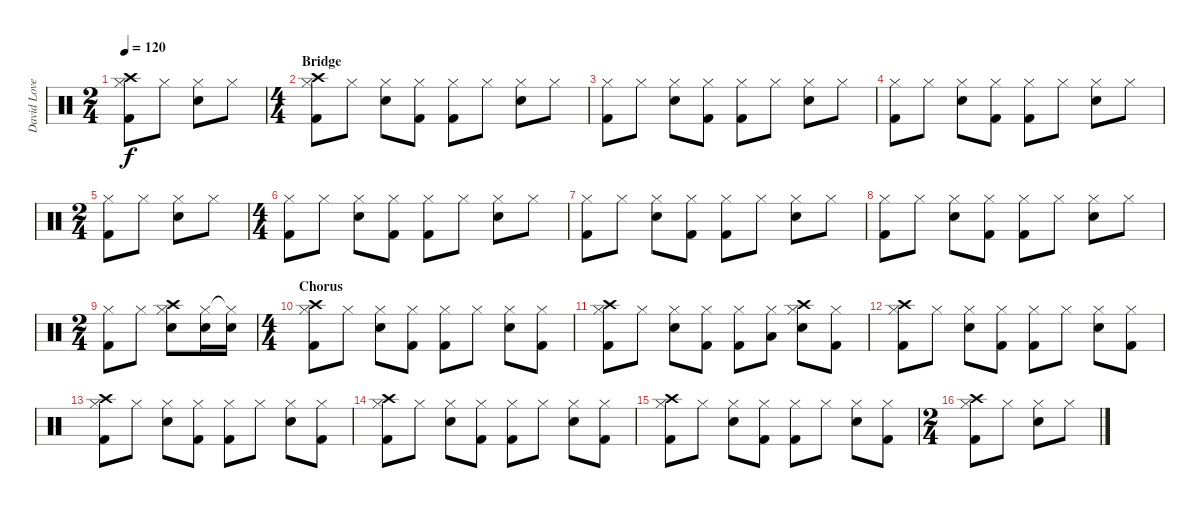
\track ("David Lovering" "David Love") {instrument percussion}
\staff {score}
\articulation defaults
\ts (2 4)
\tempo 120
\clef neutral
\ks c
("Hi-Hat (closed)" "Crash high (hit)" "Kick (hit) 2").8{dy f} "Hi-Hat (closed)".8 ("Hi-Hat (closed)" "Snare (hit) 2").8 "Hi-Hat (closed)".8 |
\ts (4 4)
\section ("" "Bridge")
("Hi-Hat (closed)" "Crash high (hit)" "Kick (hit) 2").8 "Hi-Hat (closed)".8 ("Hi-Hat (closed)" "Snare (hit) 2").8 ("Hi-Hat (closed)" "Kick (hit) 2").8 ("Hi-Hat (closed)" "Kick (hit) 2").8 "Hi-Hat (closed)".8 ("Hi-Hat (closed)" "Snare (hit) 2").8 "Hi-Hat (closed)".8 |
("Hi-Hat (closed)" "Kick (hit) 2").8 "Hi-Hat (closed)".8 ("Hi-Hat (closed)" "Snare (hit) 2").8 ("Hi-Hat (closed)" "Kick (hit) 2").8 ("Hi-Hat (closed)" "Kick (hit) 2").8 "Hi-Hat (closed)".8 ("Hi-Hat (closed)" "Snare (hit) 2").8 "Hi-Hat (closed)".8 |
("Hi-Hat (closed)" "Kick (hit) 2").8 "Hi-Hat (closed)".8 ("Hi-Hat (closed)" "Snare (hit) 2").8 ("Hi-Hat (closed)" "Kick (hit) 2").8 ("Hi-Hat (closed)" "Kick (hit) 2").8 "Hi-Hat (closed)".8 ("Hi-Hat (closed)" "Snare (hit) 2").8 "Hi-Hat (closed)".8 |
\ts (2 4)
("Hi-Hat (closed)" "Kick (hit) 2").8 "Hi-Hat (closed)".8 ("Hi-Hat (closed)" "Snare (hit) 2").8 "Hi-Hat (closed)".8 |
\ts (4 4)
("Hi-Hat (closed)" "Kick (hit) 2").8 "Hi-Hat (closed)".8 ("Hi-Hat (closed)" "Snare (hit) 2").8 ("Hi-Hat (closed)" "Kick (hit) 2").8 ("Hi-Hat (closed)" "Kick (hit) 2").8 "Hi-Hat (closed)".8 ("Hi-Hat (closed)" "Snare (hit) 2").8 "Hi-Hat (closed)".8 |
("Hi-Hat (closed)" "Kick (hit) 2").8 "Hi-Hat (closed)".8 ("Hi-Hat (closed)" "Snare (hit) 2").8 ("Hi-Hat (closed)" "Kick (hit) 2").8 ("Hi-Hat (closed)" "Kick (hit) 2").8 "Hi-Hat (closed)".8 ("Hi-Hat (closed)" "Snare (hit) 2").8 "Hi-Hat (closed)".8 |
("Hi-Hat (closed)" "Kick (hit) 2").8 "Hi-Hat (closed)".8 ("Hi-Hat (closed)" "Snare (hit) 2").8 ("Hi-Hat (closed)" "Kick (hit) 2").8 ("Hi-Hat (closed)" "Kick (hit) 2").8 "Hi-Hat (closed)".8 ("Hi-Hat (closed)" "Snare (hit) 2").8 "Hi-Hat (closed)".8 |
\ts (2 4)
("Hi-Hat (closed)" "Kick (hit) 2").8 "Hi-Hat (closed)".8 ("Hi-Hat (closed)" "Crash high (hit)" "Snare (hit) 2").8 ("Hi-Hat (closed)" "Snare (hit) 2").16 ("Hi-Hat (closed)"{t} "Snare (hit) 2").16 |
\ts (4 4)
\section ("" "Chorus")
("Hi-Hat (closed)" "Crash high (hit)" "Kick (hit) 2").8 "Hi-Hat (closed)".8 ("Hi-Hat (closed)" "Snare (hit) 2").8 ("Hi-Hat (closed)" "Kick (hit) 2").8 ("Hi-Hat (closed)" "Kick (hit) 2").8 "Hi-Hat (closed)".8 ("Hi-Hat (closed)" "Snare (hit) 2").8 ("Hi-Hat (closed)" "Kick (hit) 2").8 |
("Hi-Hat (closed)" "Crash high (hit)" "Kick (hit) 2").8 "Hi-Hat (closed)".8 ("Hi-Hat (closed)" "Snare (hit) 2").8 ("Hi-Hat (closed)" "Kick (hit) 2").8 ("Hi-Hat (closed)" "Kick (hit) 2").8 ("Hi-Hat (closed)" "Low Tom (hit)").8 ("Hi-Hat (closed)" "Crash high (hit)" "Snare (hit) 2").8 ("Hi-Hat (closed)" "Kick (hit) 2").8 |
("Hi-Hat (closed)" "Crash high (hit)" "Kick (hit) 2").8 "Hi-Hat (closed)".8 ("Hi-Hat (closed)" "Snare (hit) 2").8 ("Hi-Hat (closed)" "Kick (hit) 2").8 ("Hi-Hat (closed)" "Kick (hit) 2").8 "Hi-Hat (closed)".8 ("Hi-Hat (closed)" "Snare (hit) 2").8 ("Hi-Hat (closed)" "Kick (hit) 2").8 |
("Hi-Hat (closed)" "Crash high (hit)" "Kick (hit) 2").8 "Hi-Hat (closed)".8 ("Hi-Hat (closed)" "Snare (hit) 2").8 ("Hi-Hat (closed)" "Kick (hit) 2").8 ("Hi-Hat (closed)" "Kick (hit) 2").8 "Hi-Hat (closed)".8 ("Hi-Hat (closed)" "Snare (hit) 2").8 ("Hi-Hat (closed)" "Kick (hit) 2").8 |
("Hi-Hat (closed)" "Crash high (hit)" "Kick (hit) 2").8 "Hi-Hat (closed)".8 ("Hi-Hat (closed)" "Snare (hit) 2").8 ("Hi-Hat (closed)" "Kick (hit) 2").8 ("Hi-Hat (closed)" "Kick (hit) 2").8 "Hi-Hat (closed)".8 ("Hi-Hat (closed)" "Snare (hit) 2").8 ("Hi-Hat (closed)" "Kick (hit) 2").8 |
("Hi-Hat (closed)" "Crash high (hit)" "Kick (hit) 2").8 "Hi-Hat (closed)".8 ("Hi-Hat (closed)" "Snare (hit) 2").8 ("Hi-Hat (closed)" "Kick (hit) 2").8 ("Hi-Hat (closed)" "Kick (hit) 2").8 "Hi-Hat (closed)".8 ("Hi-Hat (closed)" "Snare (hit) 2").8 ("Hi-Hat (closed)" "Kick (hit) 2").8 |
\ts (2 4)
("Hi-Hat (closed)" "Crash high (hit)" "Kick (hit) 2").8 "Hi-Hat (closed)".8 ("Hi-Hat (closed)" "Snare (hit) 2").8 "Hi-Hat (closed)".8
